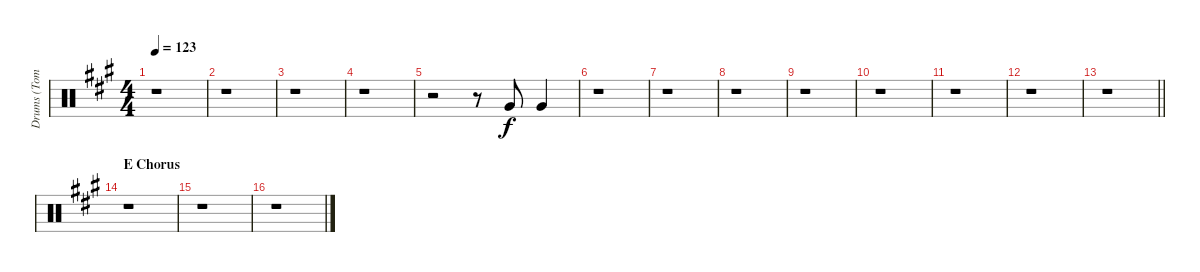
\track ("Drums (Toms" "Drums (Tom") {instrument percussion}
\staff {score}
\articulation defaults
\ts (4 4)
\tempo 123
\clef neutral
\ks a
r.1{dy f} |
r.1 |
r.1 |
r.1 |
r.2 r.8 "Very Low Tom (hit)".8 "Very Low Tom (hit)".4 |
r.1 |
r.1 |
r.1 |
r.1 |
r.1 |
r.1 |
r.1 |
\barLineRight lightlight
r.1 |
\section ("" "E Chorus")
r.1 |
r.1 |
r.1
